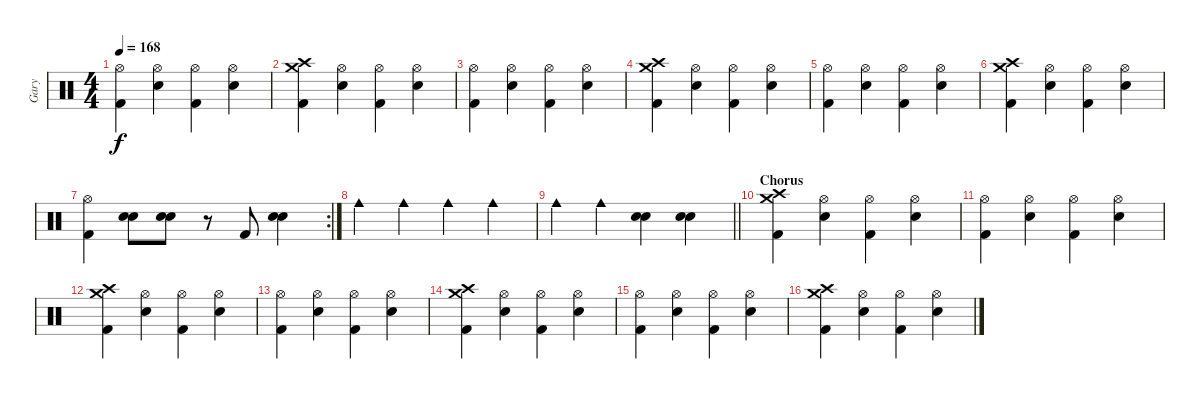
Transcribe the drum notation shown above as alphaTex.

\track ("Gary" "Gary") {instrument percussion}
\staff {score}
\articulation defaults
\ts (4 4)
\tempo 168
\clef neutral
\ks c
("Hi-Hat (open)" "Kick (hit) 2").4{dy f} ("Hi-Hat (open)" "Electric Snare (hit)").4 ("Hi-Hat (open)" "Kick (hit) 2").4 ("Hi-Hat (open)" "Electric Snare (hit)").4 |
("Crash medium (hit)" "Crash high (hit)" "Kick (hit) 2").4 ("Hi-Hat (open)" "Electric Snare (hit)").4 ("Hi-Hat (open)" "Kick (hit) 2").4 ("Hi-Hat (open)" "Electric Snare (hit)").4 |
("Hi-Hat (open)" "Kick (hit) 2").4 ("Hi-Hat (open)" "Electric Snare (hit)").4 ("Hi-Hat (open)" "Kick (hit) 2").4 ("Hi-Hat (open)" "Electric Snare (hit)").4 |
("Crash medium (hit)" "Crash high (hit)" "Kick (hit) 2").4 ("Hi-Hat (open)" "Electric Snare (hit)").4 ("Hi-Hat (open)" "Kick (hit) 2").4 ("Hi-Hat (open)" "Electric Snare (hit)").4 |
("Hi-Hat (open)" "Kick (hit) 2").4 ("Hi-Hat (open)" "Electric Snare (hit)").4 ("Hi-Hat (open)" "Kick (hit) 2").4 ("Hi-Hat (open)" "Electric Snare (hit)").4 |
("Crash medium (hit)" "Crash high (hit)" "Kick (hit) 2").4 ("Hi-Hat (open)" "Electric Snare (hit)").4 ("Hi-Hat (open)" "Kick (hit) 2").4 ("Hi-Hat (open)" "Electric Snare (hit)").4 |
\rc 2
("Hi-Hat (open)" "Kick (hit) 2").4 ("Electric Snare (hit)" "Electric Snare (hit)").8 ("Electric Snare (hit)" "Electric Snare (hit)").8 r.8 "Kick (hit) 2".8 ("Electric Snare (hit)" "Electric Snare (hit)").4 |
"Cowbell medium (hit)".4 "Cowbell medium (hit)".4 "Cowbell medium (hit)".4 "Cowbell medium (hit)".4 |
\barLineRight lightlight "Cowbell medium (hit)".4 "Cowbell medium (hit)".4
("Electric Snare (hit)" "Electric Snare (hit)").4 ("Electric Snare (hit)" "Electric Snare (hit)").4 |
\section ("" "Chorus")
("Crash medium (hit)" "Crash high (hit)" "Kick (hit) 2").4 ("Hi-Hat (open)" "Electric Snare (hit)").4 ("Hi-Hat (open)" "Kick (hit) 2").4 ("Hi-Hat (open)" "Electric Snare (hit)").4 |
("Hi-Hat (open)" "Kick (hit) 2").4 ("Hi-Hat (open)" "Electric Snare (hit)").4 ("Hi-Hat (open)" "Kick (hit) 2").4 ("Hi-Hat (open)" "Electric Snare (hit)").4 |
("Crash medium (hit)" "Crash high (hit)" "Kick (hit) 2").4 ("Hi-Hat (open)" "Electric Snare (hit)").4 ("Hi-Hat (open)" "Kick (hit) 2").4 ("Hi-Hat (open)" "Electric Snare (hit)").4 |
("Hi-Hat (open)" "Kick (hit) 2").4 ("Hi-Hat (open)" "Electric Snare (hit)").4 ("Hi-Hat (open)" "Kick (hit) 2").4 ("Hi-Hat (open)" "Electric Snare (hit)").4 |
("Crash medium (hit)" "Crash high (hit)" "Kick (hit) 2").4 ("Hi-Hat (open)" "Electric Snare (hit)").4 ("Hi-Hat (open)" "Kick (hit) 2").4 ("Hi-Hat (open)" "Electric Snare (hit)").4 |
("Hi-Hat (open)" "Kick (hit) 2").4 ("Hi-Hat (open)" "Electric Snare (hit)").4 ("Hi-Hat (open)" "Kick (hit) 2").4 ("Hi-Hat (open)" "Electric Snare (hit)").4 |
("Crash medium (hit)" "Crash high (hit)" "Kick (hit) 2").4 ("Hi-Hat (open)" "Electric Snare (hit)").4 ("Hi-Hat (open)" "Kick (hit) 2").4 ("Hi-Hat (open)" "Electric Snare (hit)").4
